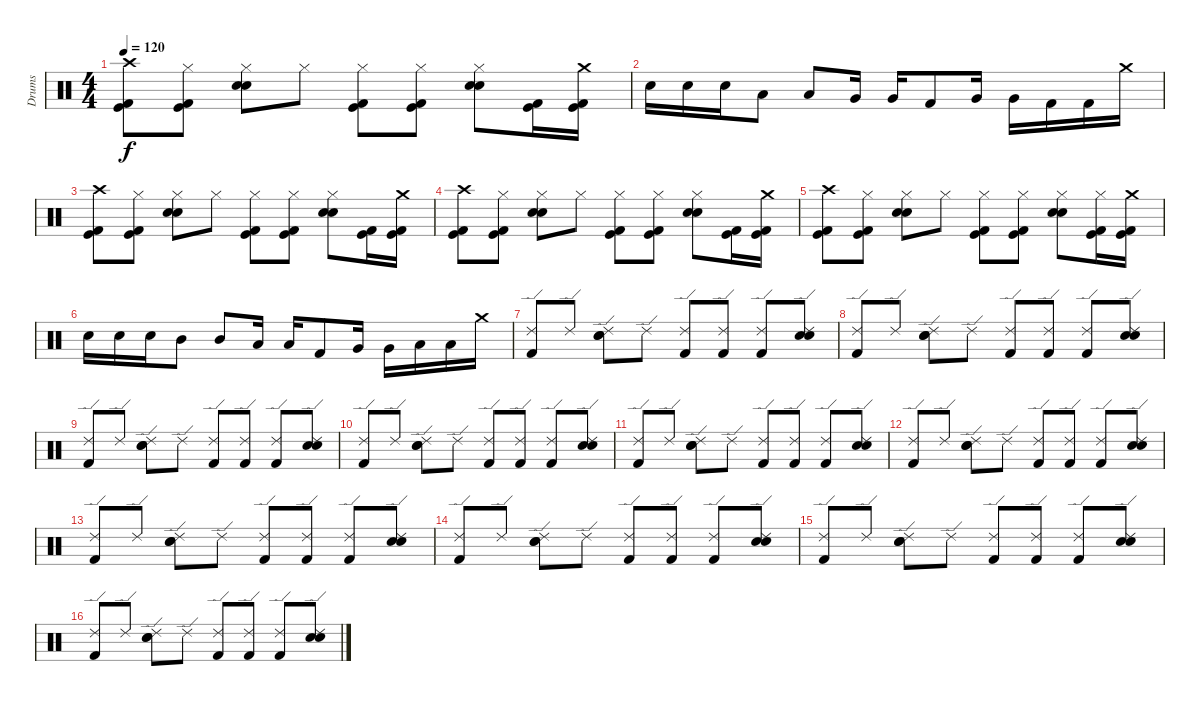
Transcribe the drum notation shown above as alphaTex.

\track ("Drums" "Drums") {instrument percussion}
\staff {score}
\articulation defaults
\ts (4 4)
\tempo 120
\clef neutral
\ks c
("Crash high (hit)" "Kick (hit) 2" "Kick (hit)").8{dy f} ("Hi-Hat (closed)" "Kick (hit) 2" "Kick (hit)").8 ("Snare (hit) 2" "Hi-Hat (closed)" "Electric Snare (hit)").8 "Hi-Hat (closed)".8 ("Hi-Hat (closed)" "Kick (hit) 2" "Kick (hit)").8 ("Hi-Hat (closed)" "Kick (hit) 2" "Kick (hit)").8 ("Snare (hit) 2" "Hi-Hat (closed)" "Electric Snare (hit)").8 ("Kick (hit) 2" "Kick (hit)").16 ("Crash medium (hit)" "Kick (hit) 2" "Kick (hit)").16 |
"Snare (hit) 2".16 "Snare (hit) 2".16 "Snare (hit) 2".16 "Low Tom (hit)".8 "Low Tom (hit)".8 "Very Low Tom (hit)".16 "Very Low Tom (hit)".16 "Kick (hit) 2".8 "Very Low Tom (hit)".16 "Very Low Tom (hit)".16 "Kick (hit) 2".16 "Kick (hit) 2".16 "Crash medium (hit)".16 |
("Crash high (hit)" "Kick (hit) 2" "Kick (hit)").8 ("Hi-Hat (closed)" "Kick (hit) 2" "Kick (hit)").8 ("Snare (hit) 2" "Hi-Hat (closed)" "Electric Snare (hit)").8 "Hi-Hat (closed)".8 ("Hi-Hat (closed)" "Kick (hit) 2" "Kick (hit)").8 ("Hi-Hat (closed)" "Kick (hit) 2" "Kick (hit)").8 ("Snare (hit) 2" "Hi-Hat (closed)" "Electric Snare (hit)").8 ("Kick (hit) 2" "Kick (hit)").16 ("Crash medium (hit)" "Kick (hit) 2" "Kick (hit)").16 |
("Crash high (hit)" "Kick (hit) 2" "Kick (hit)").8 ("Hi-Hat (closed)" "Kick (hit) 2" "Kick (hit)").8 ("Snare (hit) 2" "Hi-Hat (closed)" "Electric Snare (hit)").8 "Hi-Hat (closed)".8 ("Hi-Hat (closed)" "Kick (hit) 2" "Kick (hit)").8 ("Hi-Hat (closed)" "Kick (hit) 2" "Kick (hit)").8 ("Snare (hit) 2" "Hi-Hat (closed)" "Electric Snare (hit)").8 ("Kick (hit) 2" "Kick (hit)").16 ("Crash medium (hit)" "Kick (hit) 2" "Kick (hit)").16 |
("Crash high (hit)" "Kick (hit) 2" "Kick (hit)").8 ("Hi-Hat (closed)" "Kick (hit) 2" "Kick (hit)").8 ("Snare (hit) 2" "Hi-Hat (closed)" "Electric Snare (hit)").8 "Hi-Hat (closed)".8 ("Hi-Hat (closed)" "Kick (hit) 2" "Kick (hit)").8 ("Hi-Hat (closed)" "Kick (hit) 2" "Kick (hit)").8 ("Snare (hit) 2" "Hi-Hat (closed)" "Electric Snare (hit)").8 ("Hi-Hat (closed)" "Kick (hit) 2" "Kick (hit)").16 ("Crash medium (hit)" "Kick (hit) 2" "Kick (hit)").16 |
"Electric Snare (hit)".16 "Electric Snare (hit)".16 "Electric Snare (hit)".16 "Mid Tom (hit)".8 "Mid Tom (hit)".8 "Low Tom (hit)".16 "Low Tom (hit)".16 "Kick (hit) 2".8 "Very Low Tom (hit)".16 "Very Low Tom (hit)".16 "Low Floor Tom (hit)".16 "Low Floor Tom (hit)".16 "Crash medium (hit)".16 |
("Ride (edge) 2" "Kick (hit) 2").8 "Ride (edge) 2".8 ("Ride (edge) 2" "Snare (hit) 2" "Snare (hit) 2").8 "Ride (edge) 2".8 ("Ride (edge) 2" "Kick (hit) 2").8 ("Ride (edge) 2" "Kick (hit) 2").8 ("Ride (edge) 2" "Kick (hit) 2").8 ("Ride (edge) 2" "Snare (hit) 2" "Snare (hit) 2").8 |
("Ride (edge) 2" "Kick (hit) 2").8 "Ride (edge) 2".8 ("Ride (edge) 2" "Snare (hit) 2" "Snare (hit) 2").8 "Ride (edge) 2".8 ("Ride (edge) 2" "Kick (hit) 2").8 ("Ride (edge) 2" "Kick (hit) 2").8 ("Ride (edge) 2" "Kick (hit) 2").8 ("Ride (edge) 2" "Snare (hit) 2" "Snare (hit) 2").8 |
("Ride (edge) 2" "Kick (hit) 2").8 "Ride (edge) 2".8 ("Ride (edge) 2" "Snare (hit) 2" "Snare (hit) 2").8 "Ride (edge) 2".8 ("Ride (edge) 2" "Kick (hit) 2").8 ("Ride (edge) 2" "Kick (hit) 2").8 ("Ride (edge) 2" "Kick (hit) 2").8 ("Ride (edge) 2" "Snare (hit) 2" "Snare (hit) 2").8 |
("Ride (edge) 2" "Kick (hit) 2").8 "Ride (edge) 2".8 ("Ride (edge) 2" "Snare (hit) 2" "Snare (hit) 2").8 "Ride (edge) 2".8 ("Ride (edge) 2" "Kick (hit) 2").8 ("Ride (edge) 2" "Kick (hit) 2").8 ("Ride (edge) 2" "Kick (hit) 2").8 ("Ride (edge) 2" "Snare (hit) 2" "Snare (hit) 2").8 |
("Ride (edge) 2" "Kick (hit) 2").8 "Ride (edge) 2".8 ("Ride (edge) 2" "Snare (hit) 2" "Snare (hit) 2").8 "Ride (edge) 2".8 ("Ride (edge) 2" "Kick (hit) 2").8 ("Ride (edge) 2" "Kick (hit) 2").8 ("Ride (edge) 2" "Kick (hit) 2").8 ("Ride (edge) 2" "Snare (hit) 2" "Snare (hit) 2").8 |
("Ride (edge) 2" "Kick (hit) 2").8 "Ride (edge) 2".8 ("Ride (edge) 2" "Snare (hit) 2" "Snare (hit) 2").8 "Ride (edge) 2".8 ("Ride (edge) 2" "Kick (hit) 2").8 ("Ride (edge) 2" "Kick (hit) 2").8 ("Ride (edge) 2" "Kick (hit) 2").8 ("Ride (edge) 2" "Snare (hit) 2" "Snare (hit) 2").8 |
("Ride (edge) 2" "Kick (hit) 2").8 "Ride (edge) 2".8 ("Ride (edge) 2" "Snare (hit) 2" "Snare (hit) 2").8 "Ride (edge) 2".8 ("Ride (edge) 2" "Kick (hit) 2").8 ("Ride (edge) 2" "Kick (hit) 2").8 ("Ride (edge) 2" "Kick (hit) 2").8 ("Ride (edge) 2" "Snare (hit) 2" "Snare (hit) 2").8 |
("Ride (edge) 2" "Kick (hit) 2").8 "Ride (edge) 2".8 ("Ride (edge) 2" "Snare (hit) 2" "Snare (hit) 2").8 "Ride (edge) 2".8 ("Ride (edge) 2" "Kick (hit) 2").8 ("Ride (edge) 2" "Kick (hit) 2").8 ("Ride (edge) 2" "Kick (hit) 2").8 ("Ride (edge) 2" "Snare (hit) 2" "Snare (hit) 2").8 |
("Ride (edge) 2" "Kick (hit) 2").8 "Ride (edge) 2".8 ("Ride (edge) 2" "Snare (hit) 2" "Snare (hit) 2").8 "Ride (edge) 2".8 ("Ride (edge) 2" "Kick (hit) 2").8 ("Ride (edge) 2" "Kick (hit) 2").8 ("Ride (edge) 2" "Kick (hit) 2").8 ("Ride (edge) 2" "Snare (hit) 2" "Snare (hit) 2").8 |
("Ride (edge) 2" "Kick (hit) 2").8 "Ride (edge) 2".8 ("Ride (edge) 2" "Snare (hit) 2" "Snare (hit) 2").8 "Ride (edge) 2".8 ("Ride (edge) 2" "Kick (hit) 2").8 ("Ride (edge) 2" "Kick (hit) 2").8 ("Ride (edge) 2" "Kick (hit) 2").8 ("Ride (edge) 2" "Snare (hit) 2" "Snare (hit) 2").8
